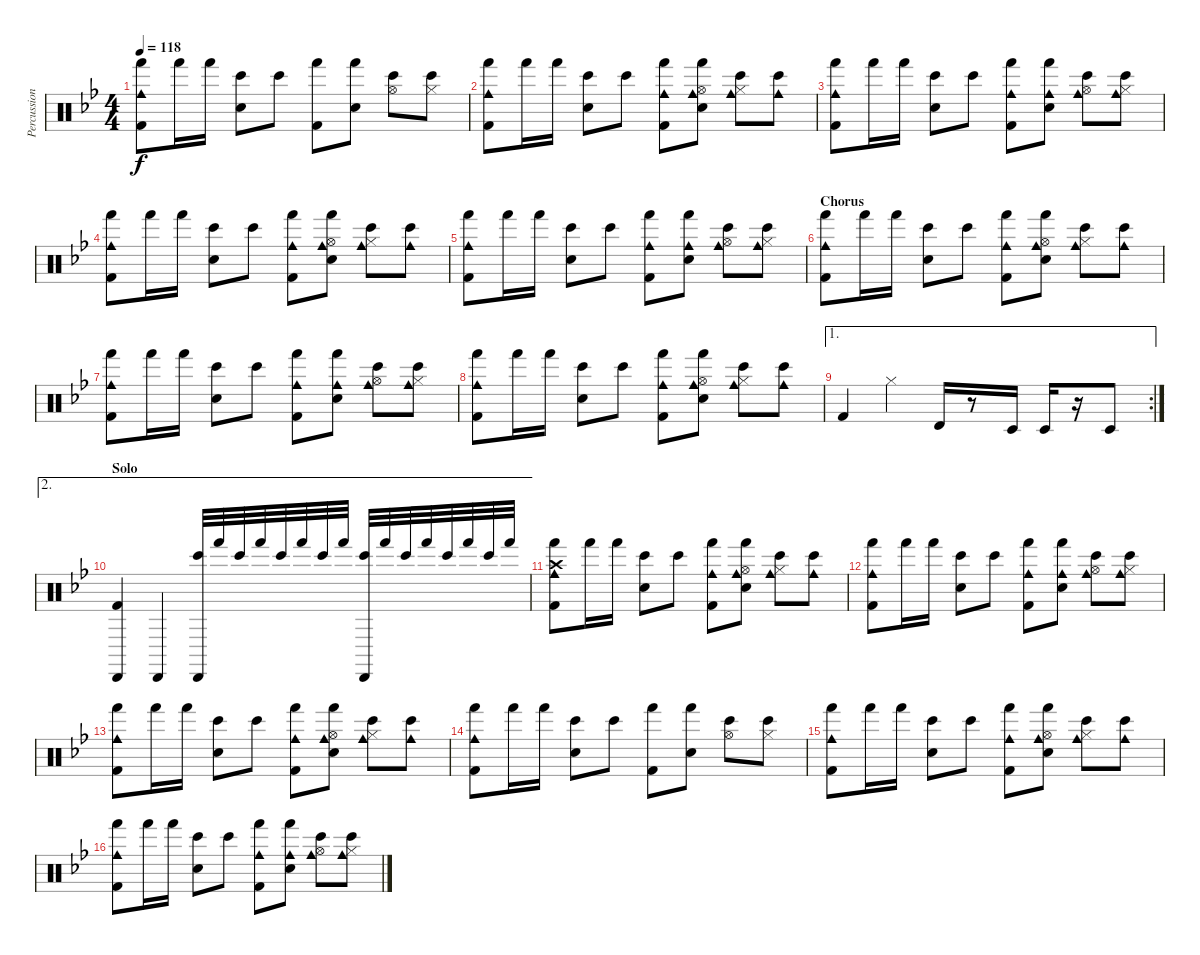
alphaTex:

\track ("Percussion" "Percussion") {instrument percussion}
\staff {score}
\articulation defaults
\ts (4 4)
\tempo 118
\clef neutral
\ks gminor
("Cowbell medium (hit)" "Hand (hit)" "Kick (hit) 2").8{dy f} "Hand (hit)".16 "Hand (hit)".16 ("Bongo High (hit)" "Electric Snare (hit)").8 "Bongo High (hit)".8 ("Hand (hit)" "Kick (hit) 2").8 ("Hand (hit)" "Electric Snare (hit)").8 ("Bongo High (hit)" "Hi-Hat (open)").8 ("Bongo High (hit)" "Hi-Hat (closed)").8 |
("Cowbell medium (hit)" "Hand (hit)" "Kick (hit) 2").8 "Hand (hit)".16 "Hand (hit)".16 ("Bongo High (hit)" "Electric Snare (hit)").8 "Bongo High (hit)".8 ("Cowbell medium (hit)" "Hand (hit)" "Kick (hit) 2").8 ("Cowbell medium (hit)" "Hand (hit)" "Electric Snare (hit)" "Hi-Hat (open)").8 ("Cowbell medium (hit)" "Bongo High (hit)" "Hi-Hat (closed)").8 ("Cowbell medium (hit)" "Bongo High (hit)").8 |
("Cowbell medium (hit)" "Hand (hit)" "Kick (hit) 2").8 "Hand (hit)".16 "Hand (hit)".16 ("Bongo High (hit)" "Electric Snare (hit)").8 "Bongo High (hit)".8 ("Cowbell medium (hit)" "Hand (hit)" "Kick (hit) 2").8 ("Cowbell medium (hit)" "Hand (hit)" "Electric Snare (hit)").8 ("Cowbell medium (hit)" "Bongo High (hit)" "Hi-Hat (open)").8 ("Cowbell medium (hit)" "Bongo High (hit)" "Hi-Hat (closed)").8 |
("Cowbell medium (hit)" "Hand (hit)" "Kick (hit) 2").8 "Hand (hit)".16 "Hand (hit)".16 ("Bongo High (hit)" "Electric Snare (hit)").8 "Bongo High (hit)".8 ("Cowbell medium (hit)" "Hand (hit)" "Kick (hit) 2").8 ("Cowbell medium (hit)" "Hand (hit)" "Electric Snare (hit)" "Hi-Hat (open)").8 ("Cowbell medium (hit)" "Bongo High (hit)" "Hi-Hat (closed)").8 ("Cowbell medium (hit)" "Bongo High (hit)").8 |
("Cowbell medium (hit)" "Hand (hit)" "Kick (hit) 2").8 "Hand (hit)".16 "Hand (hit)".16 ("Bongo High (hit)" "Electric Snare (hit)").8 "Bongo High (hit)".8 ("Cowbell medium (hit)" "Hand (hit)" "Kick (hit) 2").8 ("Cowbell medium (hit)" "Hand (hit)" "Electric Snare (hit)").8 ("Cowbell medium (hit)" "Bongo High (hit)" "Hi-Hat (open)").8 ("Cowbell medium (hit)" "Bongo High (hit)" "Hi-Hat (closed)").8 |
\section ("" "Chorus")
("Cowbell medium (hit)" "Hand (hit)" "Kick (hit) 2").8 "Hand (hit)".16 "Hand (hit)".16 ("Bongo High (hit)" "Electric Snare (hit)").8 "Bongo High (hit)".8 ("Cowbell medium (hit)" "Hand (hit)" "Kick (hit) 2").8 ("Cowbell medium (hit)" "Hand (hit)" "Electric Snare (hit)" "Hi-Hat (open)").8 ("Cowbell medium (hit)" "Bongo High (hit)" "Hi-Hat (closed)").8 ("Cowbell medium (hit)" "Bongo High (hit)").8 |
("Cowbell medium (hit)" "Hand (hit)" "Kick (hit) 2").8 "Hand (hit)".16 "Hand (hit)".16 ("Bongo High (hit)" "Electric Snare (hit)").8 "Bongo High (hit)".8 ("Cowbell medium (hit)" "Hand (hit)" "Kick (hit) 2").8 ("Cowbell medium (hit)" "Hand (hit)" "Electric Snare (hit)").8 ("Cowbell medium (hit)" "Bongo High (hit)" "Hi-Hat (open)").8 ("Cowbell medium (hit)" "Bongo High (hit)" "Hi-Hat (closed)").8 |
("Cowbell medium (hit)" "Hand (hit)" "Kick (hit) 2").8 "Hand (hit)".16 "Hand (hit)".16 ("Bongo High (hit)" "Electric Snare (hit)").8 "Bongo High (hit)".8 ("Cowbell medium (hit)" "Hand (hit)" "Kick (hit) 2").8 ("Cowbell medium (hit)" "Hand (hit)" "Electric Snare (hit)" "Hi-Hat (open)").8 ("Cowbell medium (hit)" "Bongo High (hit)" "Hi-Hat (closed)").8 ("Cowbell medium (hit)" "Bongo High (hit)").8 |
\ae 1
\rc 2 "Kick (hit) 2".4 "Hi-Hat (closed)".4 "Timbale high (hit)".16
r.8 "Timbale low (hit)".16 "Timbale low (hit)".16 r.16 "Timbale low (hit)".8 |
\ae 2
\section ("" "Solo")
("Cabasa (hit)" "Kick (hit) 2").4 "Cabasa (hit)".4 ("Cabasa (hit)" "Bongo High (hit)").32 "Hand (hit)".32 "Bongo High (hit)".32 "Hand (hit)".32 "Bongo High (hit)".32 "Hand (hit)".32 "Bongo High (hit)".32 "Hand (hit)".32 ("Cabasa (hit)" "Bongo High (hit)").32 "Hand (hit)".32 "Bongo High (hit)".32 "Hand (hit)".32 "Bongo High (hit)".32 "Hand (hit)".32 "Bongo High (hit)".32 "Hand (hit)".32 |
("Cowbell medium (hit)" "Hand (hit)" "Crash high (hit)" "Kick (hit) 2").8 "Hand (hit)".16 "Hand (hit)".16 ("Bongo High (hit)" "Electric Snare (hit)").8 "Bongo High (hit)".8 ("Cowbell medium (hit)" "Hand (hit)" "Kick (hit) 2").8 ("Cowbell medium (hit)" "Hand (hit)" "Electric Snare (hit)" "Hi-Hat (open)").8 ("Cowbell medium (hit)" "Bongo High (hit)" "Hi-Hat (closed)").8 ("Cowbell medium (hit)" "Bongo High (hit)").8 |
("Cowbell medium (hit)" "Hand (hit)" "Kick (hit) 2").8 "Hand (hit)".16 "Hand (hit)".16 ("Bongo High (hit)" "Electric Snare (hit)").8 "Bongo High (hit)".8 ("Cowbell medium (hit)" "Hand (hit)" "Kick (hit) 2").8 ("Cowbell medium (hit)" "Hand (hit)" "Electric Snare (hit)").8 ("Cowbell medium (hit)" "Bongo High (hit)" "Hi-Hat (open)").8 ("Cowbell medium (hit)" "Bongo High (hit)" "Hi-Hat (closed)").8 |
("Cowbell medium (hit)" "Hand (hit)" "Kick (hit) 2").8 "Hand (hit)".16 "Hand (hit)".16 ("Bongo High (hit)" "Electric Snare (hit)").8 "Bongo High (hit)".8 ("Cowbell medium (hit)" "Hand (hit)" "Kick (hit) 2").8 ("Cowbell medium (hit)" "Hand (hit)" "Electric Snare (hit)" "Hi-Hat (open)").8 ("Cowbell medium (hit)" "Bongo High (hit)" "Hi-Hat (closed)").8 ("Cowbell medium (hit)" "Bongo High (hit)").8 |
("Cowbell medium (hit)" "Hand (hit)" "Kick (hit) 2").8 "Hand (hit)".16 "Hand (hit)".16 ("Bongo High (hit)" "Electric Snare (hit)").8 "Bongo High (hit)".8 ("Hand (hit)" "Kick (hit) 2").8 ("Hand (hit)" "Electric Snare (hit)").8 ("Bongo High (hit)" "Hi-Hat (open)").8 ("Bongo High (hit)" "Hi-Hat (closed)").8 |
("Cowbell medium (hit)" "Hand (hit)" "Kick (hit) 2").8 "Hand (hit)".16 "Hand (hit)".16 ("Bongo High (hit)" "Electric Snare (hit)").8 "Bongo High (hit)".8 ("Cowbell medium (hit)" "Hand (hit)" "Kick (hit) 2").8 ("Cowbell medium (hit)" "Hand (hit)" "Electric Snare (hit)" "Hi-Hat (open)").8 ("Cowbell medium (hit)" "Bongo High (hit)" "Hi-Hat (closed)").8 ("Cowbell medium (hit)" "Bongo High (hit)").8 |
("Cowbell medium (hit)" "Hand (hit)" "Kick (hit) 2").8 "Hand (hit)".16 "Hand (hit)".16 ("Bongo High (hit)" "Electric Snare (hit)").8 "Bongo High (hit)".8 ("Cowbell medium (hit)" "Hand (hit)" "Kick (hit) 2").8 ("Cowbell medium (hit)" "Hand (hit)" "Electric Snare (hit)").8 ("Cowbell medium (hit)" "Bongo High (hit)" "Hi-Hat (open)").8 ("Cowbell medium (hit)" "Bongo High (hit)" "Hi-Hat (closed)").8
